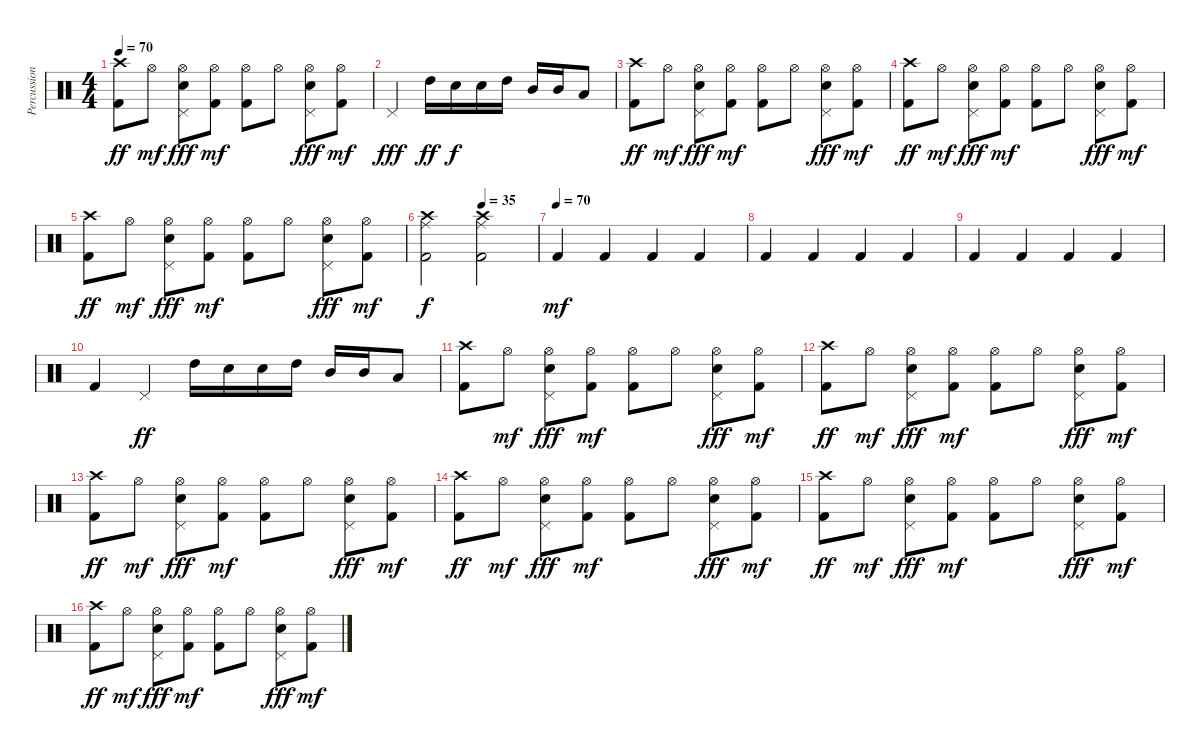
\track ("Percussion" "Percussion") {instrument percussion}
\staff {score}
\articulation defaults
\ts (4 4)
\tempo 70
\clef neutral
\ks c
("Crash high (hit)" "Kick (hit) 2").8{dy ff} "Hi-Hat (open)".8{dy mf} ("Hi-Hat (open)" "Electric Snare (hit)" "Pedal Hi-Hat (hit)").8{dy fff} ("Hi-Hat (open)" "Kick (hit) 2").8{dy mf} ("Hi-Hat (open)" "Kick (hit) 2").8 "Hi-Hat (open)".8 ("Hi-Hat (open)" "Electric Snare (hit)" "Pedal Hi-Hat (hit)").8{dy fff} ("Hi-Hat (open)" "Kick (hit) 2").8{dy mf} |
"Pedal Hi-Hat (hit)".4{dy fff} "High Tom (hit)".16{dy ff} "Electric Snare (hit)".16{dy f} "Electric Snare (hit)".16 "High Tom (hit)".16 "Mid Tom (hit)".16 "Mid Tom (hit)".16 "Low Tom (hit)".8 |
("Crash high (hit)" "Kick (hit) 2").8{dy ff} "Hi-Hat (open)".8{dy mf} ("Hi-Hat (open)" "Electric Snare (hit)" "Pedal Hi-Hat (hit)").8{dy fff} ("Hi-Hat (open)" "Kick (hit) 2").8{dy mf} ("Hi-Hat (open)" "Kick (hit) 2").8 "Hi-Hat (open)".8 ("Hi-Hat (open)" "Electric Snare (hit)" "Pedal Hi-Hat (hit)").8{dy fff} ("Hi-Hat (open)" "Kick (hit) 2").8{dy mf} |
("Crash high (hit)" "Kick (hit) 2").8{dy ff} "Hi-Hat (open)".8{dy mf} ("Hi-Hat (open)" "Electric Snare (hit)" "Pedal Hi-Hat (hit)").8{dy fff} ("Hi-Hat (open)" "Kick (hit) 2").8{dy mf} ("Hi-Hat (open)" "Kick (hit) 2").8 "Hi-Hat (open)".8 ("Hi-Hat (open)" "Electric Snare (hit)" "Pedal Hi-Hat (hit)").8{dy fff} ("Hi-Hat (open)" "Kick (hit) 2").8{dy mf} |
("Crash high (hit)" "Kick (hit) 2").8{dy ff} "Hi-Hat (open)".8{dy mf} ("Hi-Hat (open)" "Electric Snare (hit)" "Pedal Hi-Hat (hit)").8{dy fff} ("Hi-Hat (open)" "Kick (hit) 2").8{dy mf} ("Hi-Hat (open)" "Kick (hit) 2").8 "Hi-Hat (open)".8 ("Hi-Hat (open)" "Electric Snare (hit)" "Pedal Hi-Hat (hit)").8{dy fff} ("Hi-Hat (open)" "Kick (hit) 2").8{dy mf} |
\tempo (35 0.5)
("Crash high (hit)" "Ride (middle)" "Kick (hit) 2").2{dy f} ("Crash high (hit)" "Ride (middle)" "Kick (hit) 2").2 |
\tempo (70)
"Kick (hit) 2".4{dy mf} "Kick (hit) 2".4 "Kick (hit) 2".4 "Kick (hit) 2".4 |
"Kick (hit) 2".4 "Kick (hit) 2".4 "Kick (hit) 2".4 "Kick (hit) 2".4 |
"Kick (hit) 2".4 "Kick (hit) 2".4 "Kick (hit) 2".4 "Kick (hit) 2".4 |
"Kick (hit) 2".4 "Pedal Hi-Hat (hit)".4{dy ff} "High Tom (hit)".16 "Electric Snare (hit)".16 "Electric Snare (hit)".16 "High Tom (hit)".16 "Mid Tom (hit)".16 "Mid Tom (hit)".16 "Low Tom (hit)".8 |
("Crash high (hit)" "Kick (hit) 2").8 "Hi-Hat (open)".8{dy mf} ("Hi-Hat (open)" "Electric Snare (hit)" "Pedal Hi-Hat (hit)").8{dy fff} ("Hi-Hat (open)" "Kick (hit) 2").8{dy mf} ("Hi-Hat (open)" "Kick (hit) 2").8 "Hi-Hat (open)".8 ("Hi-Hat (open)" "Electric Snare (hit)" "Pedal Hi-Hat (hit)").8{dy fff} ("Hi-Hat (open)" "Kick (hit) 2").8{dy mf} |
("Crash high (hit)" "Kick (hit) 2").8{dy ff} "Hi-Hat (open)".8{dy mf} ("Hi-Hat (open)" "Electric Snare (hit)" "Pedal Hi-Hat (hit)").8{dy fff} ("Hi-Hat (open)" "Kick (hit) 2").8{dy mf} ("Hi-Hat (open)" "Kick (hit) 2").8 "Hi-Hat (open)".8 ("Hi-Hat (open)" "Electric Snare (hit)" "Pedal Hi-Hat (hit)").8{dy fff} ("Hi-Hat (open)" "Kick (hit) 2").8{dy mf} |
("Crash high (hit)" "Kick (hit) 2").8{dy ff} "Hi-Hat (open)".8{dy mf} ("Hi-Hat (open)" "Electric Snare (hit)" "Pedal Hi-Hat (hit)").8{dy fff} ("Hi-Hat (open)" "Kick (hit) 2").8{dy mf} ("Hi-Hat (open)" "Kick (hit) 2").8 "Hi-Hat (open)".8 ("Hi-Hat (open)" "Electric Snare (hit)" "Pedal Hi-Hat (hit)").8{dy fff} ("Hi-Hat (open)" "Kick (hit) 2").8{dy mf} |
("Crash high (hit)" "Kick (hit) 2").8{dy ff} "Hi-Hat (open)".8{dy mf} ("Hi-Hat (open)" "Electric Snare (hit)" "Pedal Hi-Hat (hit)").8{dy fff} ("Hi-Hat (open)" "Kick (hit) 2").8{dy mf} ("Hi-Hat (open)" "Kick (hit) 2").8 "Hi-Hat (open)".8 ("Hi-Hat (open)" "Electric Snare (hit)" "Pedal Hi-Hat (hit)").8{dy fff} ("Hi-Hat (open)" "Kick (hit) 2").8{dy mf} |
("Crash high (hit)" "Kick (hit) 2").8{dy ff} "Hi-Hat (open)".8{dy mf} ("Hi-Hat (open)" "Electric Snare (hit)" "Pedal Hi-Hat (hit)").8{dy fff} ("Hi-Hat (open)" "Kick (hit) 2").8{dy mf} ("Hi-Hat (open)" "Kick (hit) 2").8 "Hi-Hat (open)".8 ("Hi-Hat (open)" "Electric Snare (hit)" "Pedal Hi-Hat (hit)").8{dy fff} ("Hi-Hat (open)" "Kick (hit) 2").8{dy mf} |
("Crash high (hit)" "Kick (hit) 2").8{dy ff} "Hi-Hat (open)".8{dy mf} ("Hi-Hat (open)" "Electric Snare (hit)" "Pedal Hi-Hat (hit)").8{dy fff} ("Hi-Hat (open)" "Kick (hit) 2").8{dy mf} ("Hi-Hat (open)" "Kick (hit) 2").8 "Hi-Hat (open)".8 ("Hi-Hat (open)" "Electric Snare (hit)" "Pedal Hi-Hat (hit)").8{dy fff} ("Hi-Hat (open)" "Kick (hit) 2").8{dy mf}
